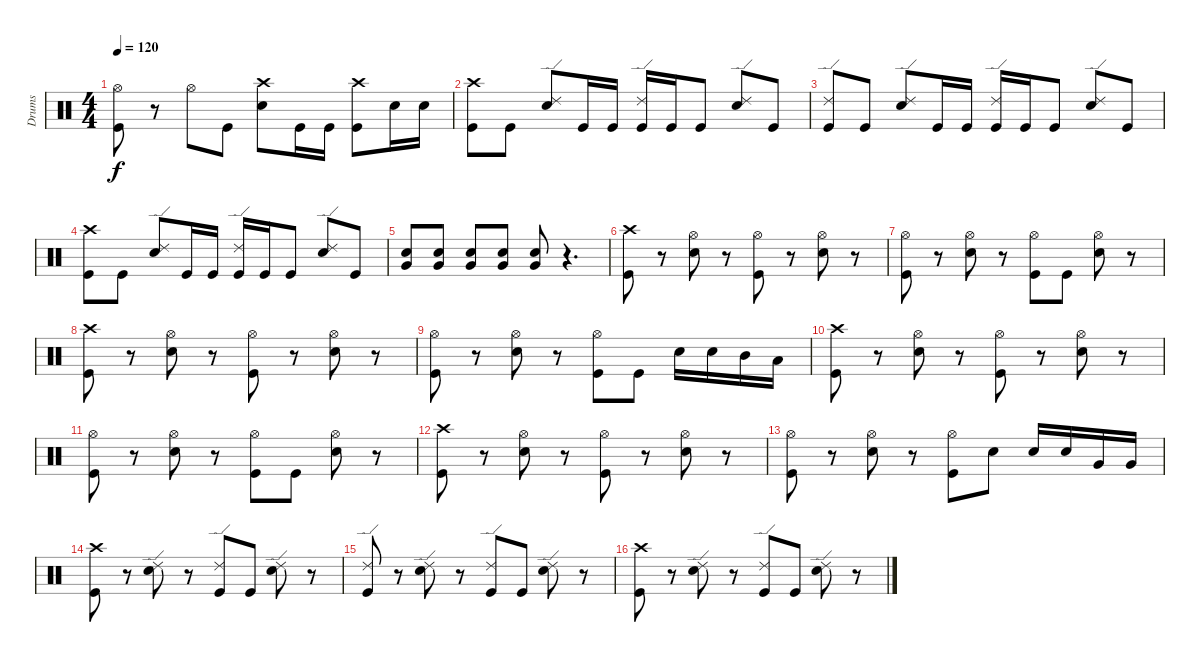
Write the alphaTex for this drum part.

\track ("Drums" "Drums") {instrument percussion}
\staff {score}
\articulation defaults
\ts (4 4)
\tempo 120
\clef neutral
\ks c
("Hi-Hat (open)" "Kick (hit)").8{dy f} r.8 "Hi-Hat (open)".8 "Kick (hit)".8 ("Snare (hit) 2" "Crash high (hit)").8 "Kick (hit)".16 "Kick (hit)".16 ("Kick (hit)" "Crash high (hit)").8 "Snare (hit) 2".16 "Snare (hit) 2".16 |
("Crash high (hit)" "Kick (hit)").8 "Kick (hit)".8 ("Ride (edge) 2" "Snare (hit) 2").8 "Kick (hit)".16 "Kick (hit)".16 ("Ride (edge) 2" "Kick (hit)").16 "Kick (hit)".16 "Kick (hit)".8 ("Ride (edge) 2" "Snare (hit) 2").8 "Kick (hit)".8 |
("Ride (edge) 2" "Kick (hit)").8 "Kick (hit)".8 ("Ride (edge) 2" "Snare (hit) 2").8 "Kick (hit)".16 "Kick (hit)".16 ("Ride (edge) 2" "Kick (hit)").16 "Kick (hit)".16 "Kick (hit)".8 ("Ride (edge) 2" "Snare (hit) 2").8 "Kick (hit)".8 |
("Crash high (hit)" "Kick (hit)").8 "Kick (hit)".8 ("Ride (edge) 2" "Snare (hit) 2").8 "Kick (hit)".16 "Kick (hit)".16 ("Ride (edge) 2" "Kick (hit)").16 "Kick (hit)".16 "Kick (hit)".8 ("Ride (edge) 2" "Snare (hit) 2").8 "Kick (hit)".8 |
("Snare (hit) 2" "Very Low Tom (hit)").8 ("Snare (hit) 2" "Very Low Tom (hit)").8 ("Snare (hit) 2" "Very Low Tom (hit)").8 ("Snare (hit) 2" "Very Low Tom (hit)").8 ("Snare (hit) 2" "Very Low Tom (hit)").8 r.4{d} |
("Crash high (hit)" "Kick (hit)").8 r.8 ("Hi-Hat (open)" "Snare (hit) 2").8 r.8 ("Hi-Hat (open)" "Kick (hit)").8 r.8 ("Hi-Hat (open)" "Snare (hit) 2").8 r.8 |
("Hi-Hat (open)" "Kick (hit)").8 r.8 ("Hi-Hat (open)" "Snare (hit) 2").8 r.8 ("Hi-Hat (open)" "Kick (hit)").8 "Kick (hit)".8 ("Hi-Hat (open)" "Snare (hit) 2").8 r.8 |
("Crash high (hit)" "Kick (hit)").8 r.8 ("Hi-Hat (open)" "Snare (hit) 2").8 r.8 ("Hi-Hat (open)" "Kick (hit)").8 r.8 ("Hi-Hat (open)" "Snare (hit) 2").8 r.8 |
("Hi-Hat (open)" "Kick (hit)").8 r.8 ("Hi-Hat (open)" "Snare (hit) 2").8 r.8 ("Hi-Hat (open)" "Kick (hit)").8 "Kick (hit)".8 "Snare (hit) 2".16 "Snare (hit) 2".16 "Mid Tom (hit)".16 "Low Tom (hit)".16 |
("Crash high (hit)" "Kick (hit)").8 r.8 ("Hi-Hat (open)" "Snare (hit) 2").8 r.8 ("Hi-Hat (open)" "Kick (hit)").8 r.8 ("Hi-Hat (open)" "Snare (hit) 2").8 r.8 |
("Hi-Hat (open)" "Kick (hit)").8 r.8 ("Hi-Hat (open)" "Snare (hit) 2").8 r.8 ("Hi-Hat (open)" "Kick (hit)").8 "Kick (hit)".8 ("Hi-Hat (open)" "Snare (hit) 2").8 r.8 |
("Crash high (hit)" "Kick (hit)").8 r.8 ("Hi-Hat (open)" "Snare (hit) 2").8 r.8 ("Hi-Hat (open)" "Kick (hit)").8 r.8 ("Hi-Hat (open)" "Snare (hit) 2").8 r.8 |
("Hi-Hat (open)" "Kick (hit)").8 r.8 ("Hi-Hat (open)" "Snare (hit) 2").8 r.8 ("Kick (hit)" "Hi-Hat (open)").8 "Snare (hit) 2".8 "Snare (hit) 2".16 "Snare (hit) 2".16 "Very Low Tom (hit)".16 "Very Low Tom (hit)".16 |
("Crash high (hit)" "Kick (hit)").8 r.8 ("Ride (edge) 2" "Snare (hit) 2").8 r.8 ("Ride (edge) 2" "Kick (hit)").8 "Kick (hit)".8 ("Ride (edge) 2" "Snare (hit) 2").8 r.8 |
("Ride (edge) 2" "Kick (hit)").8 r.8 ("Ride (edge) 2" "Snare (hit) 2").8 r.8 ("Ride (edge) 2" "Kick (hit)").8 "Kick (hit)".8 ("Ride (edge) 2" "Snare (hit) 2").8 r.8 |
("Crash high (hit)" "Kick (hit)").8 r.8 ("Ride (edge) 2" "Snare (hit) 2").8 r.8 ("Ride (edge) 2" "Kick (hit)").8 "Kick (hit)".8 ("Ride (edge) 2" "Snare (hit) 2").8 r.8
